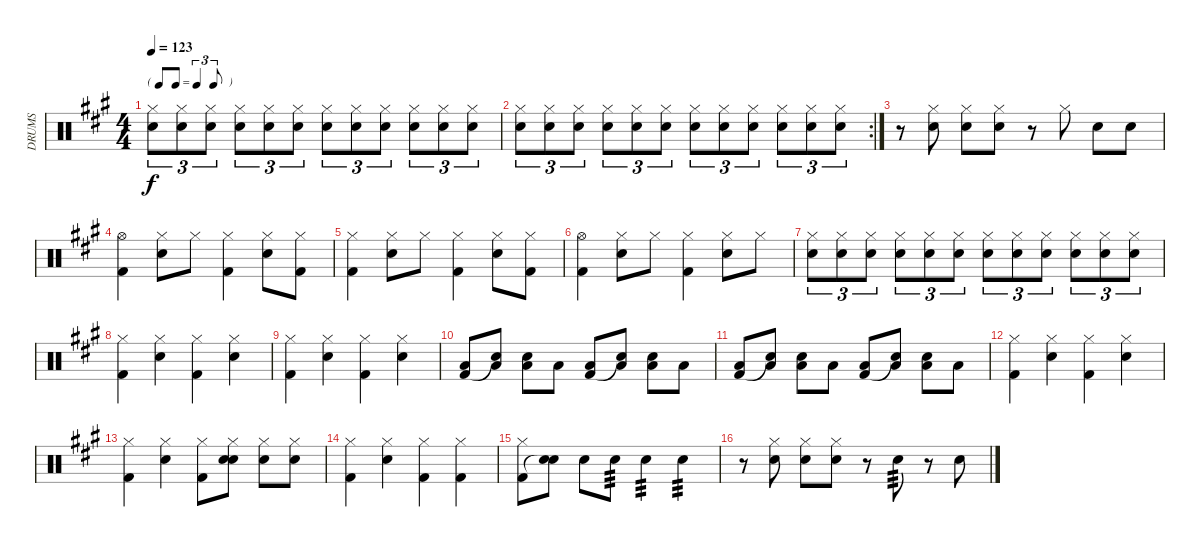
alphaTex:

\track ("DRUMS" "DRUMS") {solo instrument percussion}
\staff {score}
\articulation defaults
\ts (4 4)
\tf triplet8th
\tempo 123
\clef neutral
\ks a
("Hi-Hat (closed)" "Snare (hit) 2").8{tu (3 2) dy f} ("Hi-Hat (closed)" "Snare (hit) 2").8{tu (3 2)} ("Hi-Hat (closed)" "Snare (hit) 2").8{tu (3 2)} ("Hi-Hat (closed)" "Snare (hit) 2").8{tu (3 2)} ("Hi-Hat (closed)" "Snare (hit) 2").8{tu (3 2)} ("Hi-Hat (closed)" "Snare (hit) 2").8{tu (3 2)} ("Hi-Hat (closed)" "Snare (hit) 2").8{tu (3 2)} ("Hi-Hat (closed)" "Snare (hit) 2").8{tu (3 2)} ("Hi-Hat (closed)" "Snare (hit) 2").8{tu (3 2)} ("Hi-Hat (closed)" "Snare (hit) 2").8{tu (3 2)} ("Hi-Hat (closed)" "Snare (hit) 2").8{tu (3 2)} ("Hi-Hat (closed)" "Snare (hit) 2").8{tu (3 2)} |
\rc 2
("Hi-Hat (closed)" "Snare (hit) 2").8{tu (3 2)} ("Hi-Hat (closed)" "Snare (hit) 2").8{tu (3 2)} ("Hi-Hat (closed)" "Snare (hit) 2").8{tu (3 2)} ("Hi-Hat (closed)" "Snare (hit) 2").8{tu (3 2)} ("Hi-Hat (closed)" "Snare (hit) 2").8{tu (3 2)} ("Hi-Hat (closed)" "Snare (hit) 2").8{tu (3 2)} ("Hi-Hat (closed)" "Snare (hit) 2").8{tu (3 2)} ("Hi-Hat (closed)" "Snare (hit) 2").8{tu (3 2)} ("Hi-Hat (closed)" "Snare (hit) 2").8{tu (3 2)} ("Hi-Hat (closed)" "Snare (hit) 2").8{tu (3 2)} ("Hi-Hat (closed)" "Snare (hit) 2").8{tu (3 2)} ("Hi-Hat (closed)" "Snare (hit) 2").8{tu (3 2)} |
r.8 ("Hi-Hat (closed)" "Snare (hit) 2").8 ("Hi-Hat (closed)" "Snare (hit) 2").8 ("Hi-Hat (closed)" "Snare (hit) 2").8 r.8 "Hi-Hat (closed)".8 "Snare (hit) 2".8 "Snare (hit) 2".8 |
("Hi-Hat (open)" "Kick (hit) 2").4 ("Hi-Hat (closed)" "Snare (hit) 2").8 "Hi-Hat (closed)".8 ("Hi-Hat (closed)" "Kick (hit) 2").4 ("Hi-Hat (closed)" "Snare (hit) 2").8 ("Hi-Hat (closed)" "Kick (hit) 2").8 |
("Hi-Hat (closed)" "Kick (hit) 2").4 ("Hi-Hat (closed)" "Snare (hit) 2").8 "Hi-Hat (closed)".8 ("Hi-Hat (closed)" "Kick (hit) 2").4 ("Hi-Hat (closed)" "Snare (hit) 2").8 ("Hi-Hat (closed)" "Kick (hit) 2").8 |
("Hi-Hat (open)" "Kick (hit) 2").4 ("Hi-Hat (closed)" "Snare (hit) 2").8 "Hi-Hat (closed)".8 ("Hi-Hat (closed)" "Kick (hit) 2").4 ("Hi-Hat (closed)" "Snare (hit) 2").8 "Hi-Hat (closed)".8 |
("Hi-Hat (closed)" "Snare (hit) 2").8{tu (3 2)} ("Hi-Hat (closed)" "Snare (hit) 2").8{tu (3 2)} ("Hi-Hat (closed)" "Snare (hit) 2").8{tu (3 2)} ("Hi-Hat (closed)" "Snare (hit) 2").8{tu (3 2)} ("Hi-Hat (closed)" "Snare (hit) 2").8{tu (3 2)} ("Hi-Hat (closed)" "Snare (hit) 2").8{tu (3 2)} ("Hi-Hat (closed)" "Snare (hit) 2").8{tu (3 2)} ("Hi-Hat (closed)" "Snare (hit) 2").8{tu (3 2)} ("Hi-Hat (closed)" "Snare (hit) 2").8{tu (3 2)} ("Hi-Hat (closed)" "Snare (hit) 2").8{tu (3 2)} ("Hi-Hat (closed)" "Snare (hit) 2").8{tu (3 2)} ("Hi-Hat (closed)" "Snare (hit) 2").8{tu (3 2)} |
("Hi-Hat (closed)" "Kick (hit) 2").4 ("Hi-Hat (closed)" "Snare (hit) 2").4 ("Hi-Hat (closed)" "Kick (hit) 2").4 ("Hi-Hat (closed)" "Snare (hit) 2").4 |
("Hi-Hat (closed)" "Kick (hit) 2").4 ("Hi-Hat (closed)" "Snare (hit) 2").4 ("Hi-Hat (closed)" "Kick (hit) 2").4 ("Hi-Hat (closed)" "Snare (hit) 2").4 |
("Low Tom (hit)" "Kick (hit) 2").8 ("Low Tom (hit)" "Snare (hit)"{t}).8 ("Snare (hit) 2" "Low Tom (hit)").8 "Low Tom (hit)".8 ("Low Tom (hit)" "Kick (hit) 2").8 ("Low Tom (hit)" "Snare (hit)"{t}).8 ("Snare (hit) 2" "Low Tom (hit)").8 "Low Tom (hit)".8 |
("Low Tom (hit)" "Kick (hit) 2").8 ("Low Tom (hit)" "Snare (hit)"{t}).8 ("Snare (hit) 2" "Low Tom (hit)").8 "Low Tom (hit)".8 ("Low Tom (hit)" "Kick (hit) 2").8 ("Low Tom (hit)" "Snare (hit)"{t}).8 ("Snare (hit) 2" "Low Tom (hit)").8 "Low Tom (hit)".8 |
("Hi-Hat (closed)" "Kick (hit) 2").4 ("Hi-Hat (closed)" "Snare (hit) 2").4 ("Hi-Hat (closed)" "Kick (hit) 2").4 ("Hi-Hat (closed)" "Snare (hit) 2").4 |
("Hi-Hat (closed)" "Kick (hit) 2").4 ("Hi-Hat (closed)" "Snare (hit) 2").4 ("Hi-Hat (closed)" "Kick (hit) 2").8 ("Hi-Hat (closed)" "Snare (hit) 2" "Snare (hit)").8 ("Hi-Hat (closed)" "Snare (hit) 2").8 ("Hi-Hat (closed)" "Snare (hit) 2").8 |
("Hi-Hat (closed)" "Kick (hit) 2").4 ("Hi-Hat (closed)" "Snare (hit) 2").4 ("Hi-Hat (closed)" "Kick (hit) 2").4 ("Hi-Hat (closed)" "Kick (hit) 2").4 |
("Hi-Hat (closed)" "Kick (hit) 2").8 ("Snare (hit) 2" "Snare (hit)"{t}).8 "Snare (hit) 2".8 "Snare (hit) 2".8{tp 3} "Snare (hit) 2".4{tp 3} "Snare (hit) 2".4{tp 3} |
r.8 ("Hi-Hat (closed)" "Snare (hit) 2").8 ("Hi-Hat (closed)" "Snare (hit) 2").8 ("Hi-Hat (closed)" "Snare (hit) 2").8 r.8 "Snare (hit) 2".8{tp 3} r.8 "Snare (hit) 2".8
